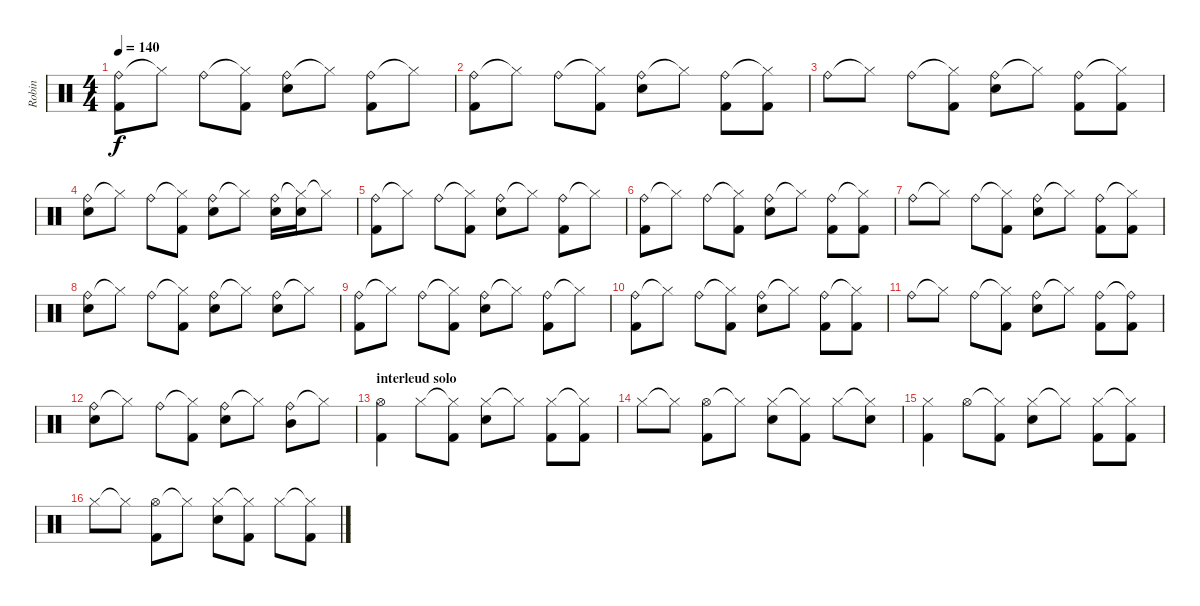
\track ("Robin" "Robin") {instrument percussion}
\staff {score}
\articulation defaults
\ts (4 4)
\tempo 140
\clef neutral
\ks c
("Ride (bell)" "Kick (hit) 2").8{dy f} "Hi-Hat (closed)"{t}.8 "Ride (bell)".8 ("Hi-Hat (closed)"{t} "Kick (hit) 2").8 ("Ride (bell)" "Snare (hit) 2").8 "Hi-Hat (closed)"{t}.8 ("Ride (bell)" "Kick (hit) 2").8 "Hi-Hat (closed)"{t}.8 |
("Ride (bell)" "Kick (hit) 2").8 "Hi-Hat (closed)"{t}.8 "Ride (bell)".8 ("Hi-Hat (closed)"{t} "Kick (hit) 2").8 ("Ride (bell)" "Snare (hit) 2").8 "Hi-Hat (closed)"{t}.8 ("Ride (bell)" "Kick (hit) 2").8 ("Hi-Hat (closed)"{t} "Kick (hit) 2").8 |
"Ride (bell)".8 "Hi-Hat (closed)"{t}.8 "Ride (bell)".8 ("Hi-Hat (closed)"{t} "Kick (hit) 2").8 ("Ride (bell)" "Snare (hit) 2").8 "Hi-Hat (closed)"{t}.8 ("Ride (bell)" "Kick (hit) 2").8 ("Hi-Hat (closed)"{t} "Kick (hit) 2").8 |
("Ride (bell)" "Snare (hit) 2").8 "Hi-Hat (closed)"{t}.8 "Ride (bell)".8 ("Hi-Hat (closed)"{t} "Kick (hit) 2").8 ("Ride (bell)" "Snare (hit) 2").8 "Hi-Hat (closed)"{t}.8 ("Ride (bell)" "Snare (hit) 2").16 ("Hi-Hat (closed)"{t} "Snare (hit) 2").16 "Hi-Hat (closed)"{t}.8 |
("Ride (bell)" "Kick (hit) 2").8 "Hi-Hat (closed)"{t}.8 "Ride (bell)".8 ("Hi-Hat (closed)"{t} "Kick (hit) 2").8 ("Ride (bell)" "Snare (hit) 2").8 "Hi-Hat (closed)"{t}.8 ("Ride (bell)" "Kick (hit) 2").8 "Hi-Hat (closed)"{t}.8 |
("Ride (bell)" "Kick (hit) 2").8 "Hi-Hat (closed)"{t}.8 "Ride (bell)".8 ("Hi-Hat (closed)"{t} "Kick (hit) 2").8 ("Ride (bell)" "Snare (hit) 2").8 "Hi-Hat (closed)"{t}.8 ("Ride (bell)" "Kick (hit) 2").8 ("Hi-Hat (closed)"{t} "Kick (hit) 2").8 |
"Ride (bell)".8 "Hi-Hat (closed)"{t}.8 "Ride (bell)".8 ("Hi-Hat (closed)"{t} "Kick (hit) 2").8 ("Ride (bell)" "Snare (hit) 2").8 "Hi-Hat (closed)"{t}.8 ("Ride (bell)" "Kick (hit) 2").8 ("Hi-Hat (closed)"{t} "Kick (hit) 2").8 |
("Ride (bell)" "Snare (hit) 2").8 "Hi-Hat (closed)"{t}.8 "Ride (bell)".8 ("Hi-Hat (closed)"{t} "Kick (hit) 2").8 ("Ride (bell)" "Snare (hit) 2").8 "Hi-Hat (closed)"{t}.8 ("Ride (bell)" "Snare (hit) 2").8 "Hi-Hat (closed)"{t}.8 |
("Ride (bell)" "Kick (hit) 2").8 "Hi-Hat (closed)"{t}.8 "Ride (bell)".8 ("Hi-Hat (closed)"{t} "Kick (hit) 2").8 ("Ride (bell)" "Snare (hit) 2").8 "Hi-Hat (closed)"{t}.8 ("Ride (bell)" "Kick (hit) 2").8 "Hi-Hat (closed)"{t}.8 |
("Ride (bell)" "Kick (hit) 2").8 "Hi-Hat (closed)"{t}.8 "Ride (bell)".8 ("Hi-Hat (closed)"{t} "Kick (hit) 2").8 ("Ride (bell)" "Snare (hit) 2").8 "Hi-Hat (closed)"{t}.8 ("Ride (bell)" "Kick (hit) 2").8 ("Hi-Hat (closed)"{t} "Kick (hit) 2").8 |
"Ride (bell)".8 "Hi-Hat (closed)"{t}.8 "Ride (bell)".8 ("Hi-Hat (closed)"{t} "Kick (hit) 2").8 ("Ride (bell)" "Snare (hit) 2").8 "Hi-Hat (closed)"{t}.8 ("Ride (bell)" "Kick (hit) 2").8 ("Ride (bell)"{t} "Kick (hit) 2").8 |
("Ride (bell)" "Snare (hit) 2").8 "Hi-Hat (closed)"{t}.8 "Ride (bell)".8 ("Hi-Hat (closed)"{t} "Kick (hit) 2").8 ("Ride (bell)" "Snare (hit) 2").8 "Hi-Hat (closed)"{t}.8 ("Ride (bell)" "Mid Tom (hit)").8 "Hi-Hat (closed)"{t}.8 |
\section ("" "interleud solo")
("Hi-Hat (open)" "Kick (hit) 2").4 "Hi-Hat (closed)".8 ("Hi-Hat (closed)"{t} "Kick (hit) 2").8 ("Hi-Hat (closed)" "Snare (hit) 2").8 "Hi-Hat (closed)"{t}.8 ("Hi-Hat (closed)" "Kick (hit) 2").8 ("Hi-Hat (closed)"{t} "Kick (hit) 2").8 |
"Hi-Hat (closed)".8 "Hi-Hat (closed)"{t}.8 ("Hi-Hat (open)" "Kick (hit) 2").8 "Hi-Hat (closed)"{t}.8 ("Hi-Hat (closed)" "Snare (hit) 2").8 ("Hi-Hat (closed)"{t} "Kick (hit) 2").8 "Hi-Hat (closed)".8 ("Hi-Hat (closed)"{t} "Snare (hit) 2").8 |
("Hi-Hat (closed)" "Kick (hit) 2").4 "Hi-Hat (open)".8 ("Hi-Hat (closed)"{t} "Kick (hit) 2").8 ("Hi-Hat (closed)" "Snare (hit) 2").8 "Hi-Hat (closed)"{t}.8 ("Hi-Hat (closed)" "Kick (hit) 2").8 ("Hi-Hat (closed)"{t} "Kick (hit) 2").8 |
"Hi-Hat (closed)".8 "Hi-Hat (closed)"{t}.8 ("Hi-Hat (open)" "Kick (hit) 2").8 "Hi-Hat (closed)"{t}.8 ("Hi-Hat (closed)" "Snare (hit) 2").8 ("Hi-Hat (closed)"{t} "Kick (hit) 2").8 "Hi-Hat (closed)".8 ("Hi-Hat (closed)"{t} "Kick (hit) 2").8
